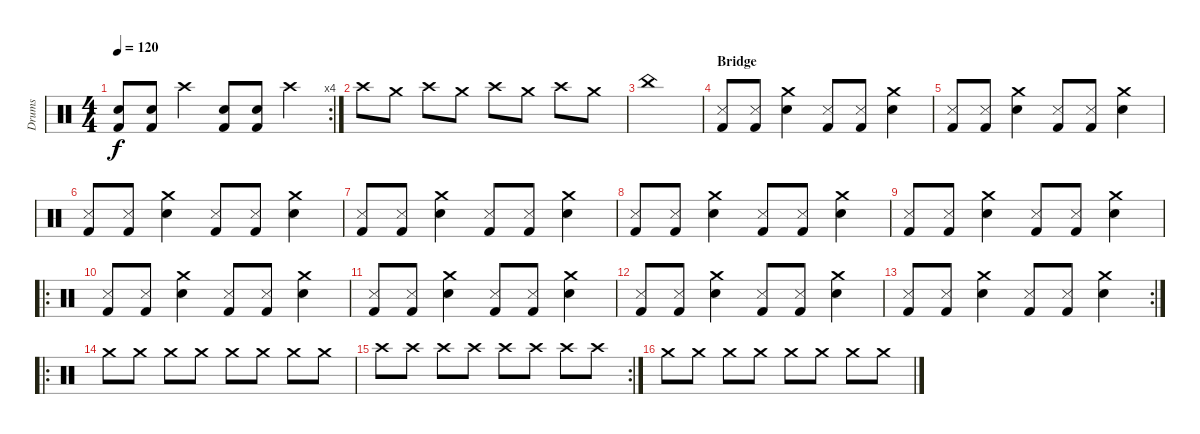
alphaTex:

\track ("Drums" "Drums") {instrument percussion}
\staff {score}
\articulation defaults
\rc 4
\ts (4 4)
\tempo 120
\clef neutral
\ks c
("Kick (hit) 2" "Snare (hit) 2").8{dy f} ("Kick (hit) 2" "Snare (hit) 2").8 "Crash high (hit)".4 ("Snare (hit) 2" "Kick (hit) 2").8 ("Kick (hit) 2" "Snare (hit) 2").8 "Crash high (hit)".4 |
"Crash high (hit)".8 "Crash medium (hit)".8 "Crash high (hit)".8 "Crash medium (hit)".8 "Crash high (hit)".8 "Crash medium (hit)".8 "Crash high (hit)".8 "Crash medium (hit)".8 |
"China (hit)".1 |
\section ("" "Bridge")
("Snare (side stick) 3" "Kick (hit) 2").8 ("Snare (side stick) 3" "Kick (hit) 2").8 ("Crash medium (hit)" "Snare (hit) 2").4 ("Snare (side stick) 3" "Kick (hit) 2").8 ("Snare (side stick) 3" "Kick (hit) 2").8 ("Crash medium (hit)" "Snare (hit) 2").4 |
("Snare (side stick) 3" "Kick (hit) 2").8 ("Snare (side stick) 3" "Kick (hit) 2").8 ("Crash medium (hit)" "Snare (hit) 2").4 ("Snare (side stick) 3" "Kick (hit) 2").8 ("Snare (side stick) 3" "Kick (hit) 2").8 ("Crash medium (hit)" "Snare (hit) 2").4 |
("Snare (side stick) 3" "Kick (hit) 2").8 ("Snare (side stick) 3" "Kick (hit) 2").8 ("Crash medium (hit)" "Snare (hit) 2").4 ("Snare (side stick) 3" "Kick (hit) 2").8 ("Snare (side stick) 3" "Kick (hit) 2").8 ("Crash medium (hit)" "Snare (hit) 2").4 |
("Snare (side stick) 3" "Kick (hit) 2").8 ("Snare (side stick) 3" "Kick (hit) 2").8 ("Crash medium (hit)" "Snare (hit) 2").4 ("Snare (side stick) 3" "Kick (hit) 2").8 ("Snare (side stick) 3" "Kick (hit) 2").8 ("Crash medium (hit)" "Snare (hit) 2").4 |
("Snare (side stick) 3" "Kick (hit) 2").8 ("Snare (side stick) 3" "Kick (hit) 2").8 ("Crash medium (hit)" "Snare (hit) 2").4 ("Snare (side stick) 3" "Kick (hit) 2").8 ("Snare (side stick) 3" "Kick (hit) 2").8 ("Crash medium (hit)" "Snare (hit) 2").4 |
("Snare (side stick) 3" "Kick (hit) 2").8 ("Snare (side stick) 3" "Kick (hit) 2").8 ("Crash medium (hit)" "Snare (hit) 2").4 ("Snare (side stick) 3" "Kick (hit) 2").8 ("Snare (side stick) 3" "Kick (hit) 2").8 ("Crash medium (hit)" "Snare (hit) 2").4 |
\ro
("Snare (side stick) 3" "Kick (hit) 2").8 ("Snare (side stick) 3" "Kick (hit) 2").8 ("Crash medium (hit)" "Snare (hit) 2").4 ("Snare (side stick) 3" "Kick (hit) 2").8 ("Snare (side stick) 3" "Kick (hit) 2").8 ("Crash medium (hit)" "Snare (hit) 2").4 |
("Snare (side stick) 3" "Kick (hit) 2").8 ("Snare (side stick) 3" "Kick (hit) 2").8 ("Crash medium (hit)" "Snare (hit) 2").4 ("Snare (side stick) 3" "Kick (hit) 2").8 ("Snare (side stick) 3" "Kick (hit) 2").8 ("Crash medium (hit)" "Snare (hit) 2").4 |
("Snare (side stick) 3" "Kick (hit) 2").8 ("Snare (side stick) 3" "Kick (hit) 2").8 ("Crash medium (hit)" "Snare (hit) 2").4 ("Snare (side stick) 3" "Kick (hit) 2").8 ("Snare (side stick) 3" "Kick (hit) 2").8 ("Crash medium (hit)" "Snare (hit) 2").4 |
\rc 2
("Snare (side stick) 3" "Kick (hit) 2").8 ("Snare (side stick) 3" "Kick (hit) 2").8 ("Crash medium (hit)" "Snare (hit) 2").4 ("Snare (side stick) 3" "Kick (hit) 2").8 ("Snare (side stick) 3" "Kick (hit) 2").8 ("Crash medium (hit)" "Snare (hit) 2").4 |
\ro "Crash medium (hit)".8 "Crash medium (hit)".8 "Crash medium (hit)".8 "Crash medium (hit)".8 "Crash medium (hit)".8 "Crash medium (hit)".8 "Crash medium (hit)".8 "Crash medium (hit)".8
|
\rc 2 "Crash high (hit)".8 "Crash high (hit)".8 "Crash high (hit)".8 "Crash high (hit)".8 "Crash high (hit)".8 "Crash high (hit)".8 "Crash high (hit)".8 "Crash high (hit)".8
|
"Crash medium (hit)".8 "Crash medium (hit)".8 "Crash medium (hit)".8 "Crash medium (hit)".8 "Crash medium (hit)".8 "Crash medium (hit)".8 "Crash medium (hit)".8 "Crash medium (hit)".8
